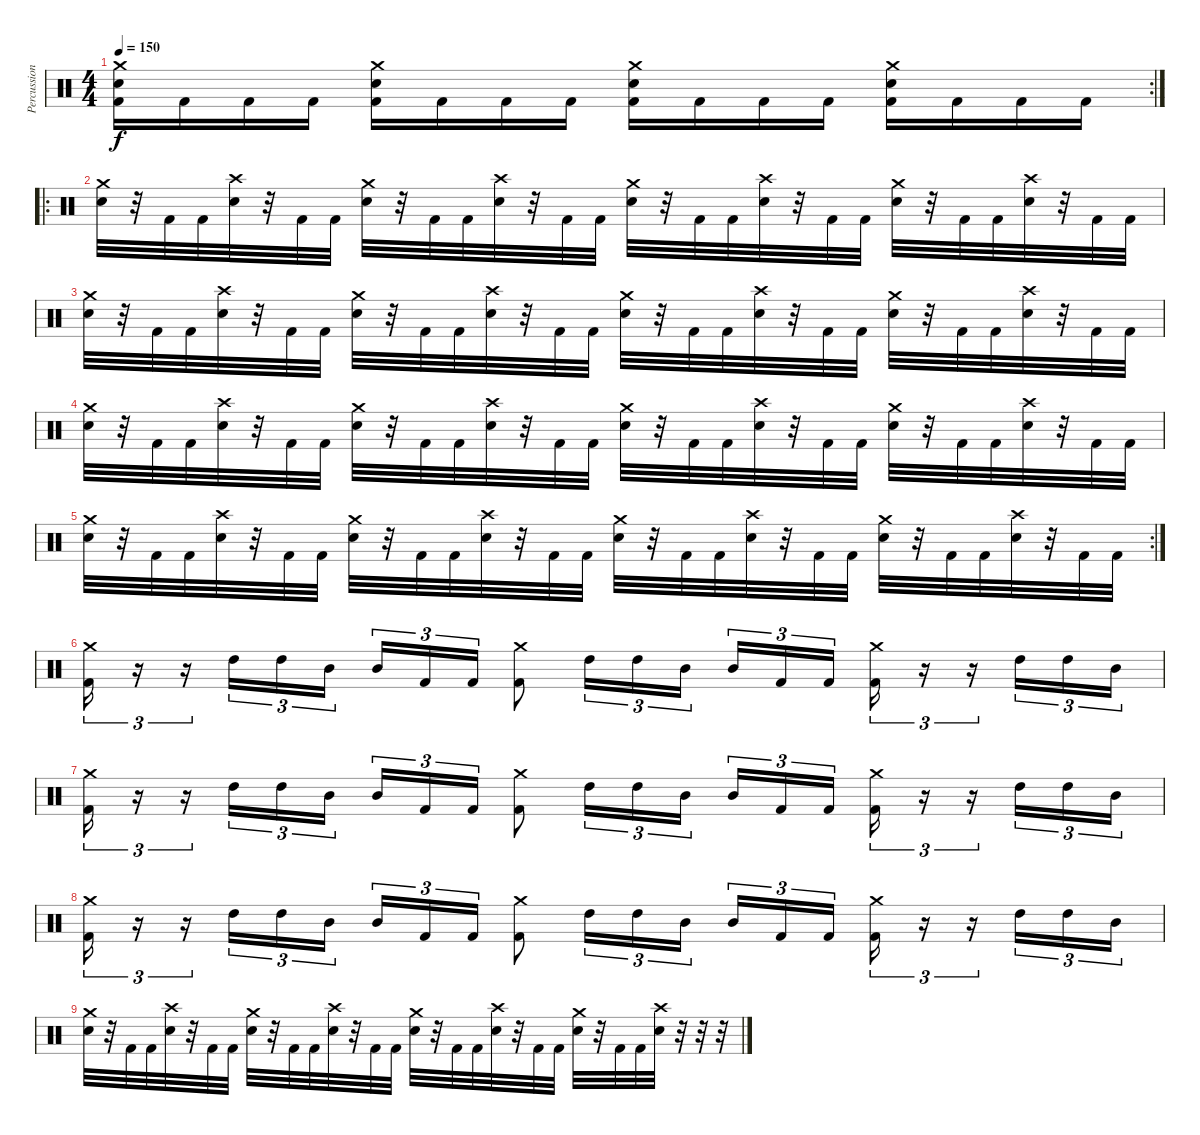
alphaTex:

\track ("Percussion" "Percussion") {instrument percussion}
\staff {score}
\articulation defaults
\rc 2
\ts (4 4)
\tempo 150
\clef neutral
\ks c
("Crash medium (hit)" "Electric Snare (hit)" "Kick (hit) 2").16{dy f} "Kick (hit) 2".16 "Kick (hit) 2".16 "Kick (hit) 2".16 ("Crash medium (hit)" "Electric Snare (hit)" "Kick (hit) 2").16 "Kick (hit) 2".16 "Kick (hit) 2".16 "Kick (hit) 2".16 ("Crash medium (hit)" "Electric Snare (hit)" "Kick (hit) 2").16 "Kick (hit) 2".16 "Kick (hit) 2".16 "Kick (hit) 2".16 ("Crash medium (hit)" "Electric Snare (hit)" "Kick (hit) 2").16 "Kick (hit) 2".16 "Kick (hit) 2".16 "Kick (hit) 2".16 |
\ro
("Crash medium (hit)" "Electric Snare (hit)").32 r.32 "Kick (hit) 2".32 "Kick (hit) 2".32 ("Crash high (hit)" "Electric Snare (hit)").32 r.32 "Kick (hit) 2".32 "Kick (hit) 2".32 ("Crash medium (hit)" "Electric Snare (hit)").32 r.32 "Kick (hit) 2".32 "Kick (hit) 2".32 ("Crash high (hit)" "Electric Snare (hit)").32 r.32 "Kick (hit) 2".32 "Kick (hit) 2".32 ("Crash medium (hit)" "Electric Snare (hit)").32 r.32 "Kick (hit) 2".32 "Kick (hit) 2".32 ("Crash high (hit)" "Electric Snare (hit)").32 r.32 "Kick (hit) 2".32 "Kick (hit) 2".32 ("Crash medium (hit)" "Electric Snare (hit)").32 r.32 "Kick (hit) 2".32 "Kick (hit) 2".32 ("Crash high (hit)" "Electric Snare (hit)").32 r.32 "Kick (hit) 2".32 "Kick (hit) 2".32 |
("Crash medium (hit)" "Electric Snare (hit)").32 r.32 "Kick (hit) 2".32 "Kick (hit) 2".32 ("Crash high (hit)" "Electric Snare (hit)").32 r.32 "Kick (hit) 2".32 "Kick (hit) 2".32 ("Crash medium (hit)" "Electric Snare (hit)").32 r.32 "Kick (hit) 2".32 "Kick (hit) 2".32 ("Crash high (hit)" "Electric Snare (hit)").32 r.32 "Kick (hit) 2".32 "Kick (hit) 2".32 ("Crash medium (hit)" "Electric Snare (hit)").32 r.32 "Kick (hit) 2".32 "Kick (hit) 2".32 ("Crash high (hit)" "Electric Snare (hit)").32 r.32 "Kick (hit) 2".32 "Kick (hit) 2".32 ("Crash medium (hit)" "Electric Snare (hit)").32 r.32 "Kick (hit) 2".32 "Kick (hit) 2".32 ("Crash high (hit)" "Electric Snare (hit)").32 r.32 "Kick (hit) 2".32 "Kick (hit) 2".32 |
("Crash medium (hit)" "Electric Snare (hit)").32 r.32 "Kick (hit) 2".32 "Kick (hit) 2".32 ("Crash high (hit)" "Electric Snare (hit)").32 r.32 "Kick (hit) 2".32 "Kick (hit) 2".32 ("Crash medium (hit)" "Electric Snare (hit)").32 r.32 "Kick (hit) 2".32 "Kick (hit) 2".32 ("Crash high (hit)" "Electric Snare (hit)").32 r.32 "Kick (hit) 2".32 "Kick (hit) 2".32 ("Crash medium (hit)" "Electric Snare (hit)").32 r.32 "Kick (hit) 2".32 "Kick (hit) 2".32 ("Crash high (hit)" "Electric Snare (hit)").32 r.32 "Kick (hit) 2".32 "Kick (hit) 2".32 ("Crash medium (hit)" "Electric Snare (hit)").32 r.32 "Kick (hit) 2".32 "Kick (hit) 2".32 ("Crash high (hit)" "Electric Snare (hit)").32 r.32 "Kick (hit) 2".32 "Kick (hit) 2".32 |
\rc 2
("Crash medium (hit)" "Electric Snare (hit)").32 r.32 "Kick (hit) 2".32 "Kick (hit) 2".32 ("Crash high (hit)" "Electric Snare (hit)").32 r.32 "Kick (hit) 2".32 "Kick (hit) 2".32 ("Crash medium (hit)" "Electric Snare (hit)").32 r.32 "Kick (hit) 2".32 "Kick (hit) 2".32 ("Crash high (hit)" "Electric Snare (hit)").32 r.32 "Kick (hit) 2".32 "Kick (hit) 2".32 ("Crash medium (hit)" "Electric Snare (hit)").32 r.32 "Kick (hit) 2".32 "Kick (hit) 2".32 ("Crash high (hit)" "Electric Snare (hit)").32 r.32 "Kick (hit) 2".32 "Kick (hit) 2".32 ("Crash medium (hit)" "Electric Snare (hit)").32 r.32 "Kick (hit) 2".32 "Kick (hit) 2".32 ("Crash high (hit)" "Electric Snare (hit)").32 r.32 "Kick (hit) 2".32 "Kick (hit) 2".32 |
("Crash medium (hit)" "Kick (hit) 2").16{tu (3 2)} r.16{tu (3 2)} r.16{tu (3 2)} "High Tom (hit)".16{tu (3 2)} "High Tom (hit)".16{tu (3 2)} "Mid Tom (hit)".16{tu (3 2)} "Mid Tom (hit)".16{tu (3 2)} "Kick (hit) 2".16{tu (3 2)} "Kick (hit) 2".16{tu (3 2)} ("Crash medium (hit)" "Kick (hit) 2").8 "High Tom (hit)".16{tu (3 2)} "High Tom (hit)".16{tu (3 2)} "Mid Tom (hit)".16{tu (3 2) beam splitsecondary} "Mid Tom (hit)".16{tu (3 2)} "Kick (hit) 2".16{tu (3 2)} "Kick (hit) 2".16{tu (3 2)} ("Crash medium (hit)" "Kick (hit) 2").16{tu (3 2)} r.16{tu (3 2)} r.16{tu (3 2)} "High Tom (hit)".16{tu (3 2)} "High Tom (hit)".16{tu (3 2)} "Mid Tom (hit)".16{tu (3 2)} |
("Crash medium (hit)" "Kick (hit) 2").16{tu (3 2)} r.16{tu (3 2)} r.16{tu (3 2)} "High Tom (hit)".16{tu (3 2)} "High Tom (hit)".16{tu (3 2)} "Mid Tom (hit)".16{tu (3 2)} "Mid Tom (hit)".16{tu (3 2)} "Kick (hit) 2".16{tu (3 2)} "Kick (hit) 2".16{tu (3 2)} ("Crash medium (hit)" "Kick (hit) 2").8 "High Tom (hit)".16{tu (3 2)} "High Tom (hit)".16{tu (3 2)} "Mid Tom (hit)".16{tu (3 2) beam splitsecondary} "Mid Tom (hit)".16{tu (3 2)} "Kick (hit) 2".16{tu (3 2)} "Kick (hit) 2".16{tu (3 2)} ("Crash medium (hit)" "Kick (hit) 2").16{tu (3 2)} r.16{tu (3 2)} r.16{tu (3 2)} "High Tom (hit)".16{tu (3 2)} "High Tom (hit)".16{tu (3 2)} "Mid Tom (hit)".16{tu (3 2)} |
("Crash medium (hit)" "Kick (hit) 2").16{tu (3 2)} r.16{tu (3 2)} r.16{tu (3 2)} "High Tom (hit)".16{tu (3 2)} "High Tom (hit)".16{tu (3 2)} "Mid Tom (hit)".16{tu (3 2)} "Mid Tom (hit)".16{tu (3 2)} "Kick (hit) 2".16{tu (3 2)} "Kick (hit) 2".16{tu (3 2)} ("Crash medium (hit)" "Kick (hit) 2").8 "High Tom (hit)".16{tu (3 2)} "High Tom (hit)".16{tu (3 2)} "Mid Tom (hit)".16{tu (3 2) beam splitsecondary} "Mid Tom (hit)".16{tu (3 2)} "Kick (hit) 2".16{tu (3 2)} "Kick (hit) 2".16{tu (3 2)} ("Crash medium (hit)" "Kick (hit) 2").16{tu (3 2)} r.16{tu (3 2)} r.16{tu (3 2)} "High Tom (hit)".16{tu (3 2)} "High Tom (hit)".16{tu (3 2)} "Mid Tom (hit)".16{tu (3 2)} |
("Crash medium (hit)" "Electric Snare (hit)").32 r.32 "Kick (hit) 2".32 "Kick (hit) 2".32 ("Crash high (hit)" "Electric Snare (hit)").32 r.32 "Kick (hit) 2".32 "Kick (hit) 2".32 ("Crash medium (hit)" "Electric Snare (hit)").32 r.32 "Kick (hit) 2".32 "Kick (hit) 2".32 ("Crash high (hit)" "Electric Snare (hit)").32 r.32 "Kick (hit) 2".32 "Kick (hit) 2".32 ("Crash medium (hit)" "Electric Snare (hit)").32 r.32 "Kick (hit) 2".32 "Kick (hit) 2".32 ("Crash high (hit)" "Electric Snare (hit)").32 r.32 "Kick (hit) 2".32 "Kick (hit) 2".32 ("Crash medium (hit)" "Electric Snare (hit)").32 r.32 "Kick (hit) 2".32 "Kick (hit) 2".32 ("Crash high (hit)" "Electric Snare (hit)").32 r.32 r.32 r.32
